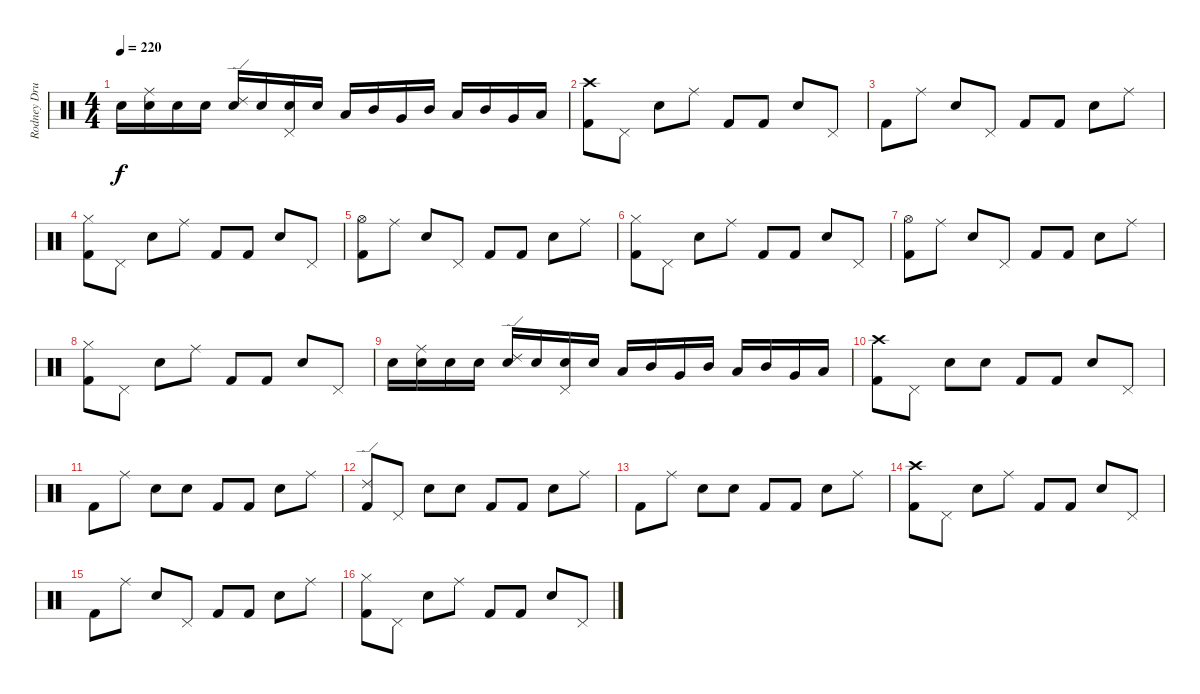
\track ("Rodney Drums" "Rodney Dru") {instrument percussion}
\staff {score}
\articulation defaults
\ts (4 4)
\tempo 220
\clef neutral
\ks c "Electric Snare (hit)".16{dy f}
("Ride (middle)" "Electric Snare (hit)").16 "Electric Snare (hit)".16 "Electric Snare (hit)".16 ("Ride (edge) 2" "Electric Snare (hit)").16 "Electric Snare (hit)".16 ("Pedal Hi-Hat (hit)" "Electric Snare (hit)").16 "Electric Snare (hit)".16 "Low Tom (hit)".16 "Mid Tom (hit)".16 "Very Low Tom (hit)".16 "Mid Tom (hit)".16 "Low Tom (hit)".16 "Mid Tom (hit)".16 "Very Low Tom (hit)".16 "Low Tom (hit)".16 |
("Crash high (hit)" "Kick (hit) 2").8 "Pedal Hi-Hat (hit)".8 "Electric Snare (hit)".8 "Ride (middle)".8 "Kick (hit) 2".8 "Kick (hit) 2".8 "Electric Snare (hit)".8 "Pedal Hi-Hat (hit)".8 |
"Kick (hit) 2".8 "Ride (middle)".8 "Electric Snare (hit)".8 "Pedal Hi-Hat (hit)".8 "Kick (hit) 2".8 "Kick (hit) 2".8 "Electric Snare (hit)".8 "Ride (middle)".8 |
("Hi-Hat (closed)" "Kick (hit) 2").8 "Pedal Hi-Hat (hit)".8 "Electric Snare (hit)".8 "Ride (middle)".8 "Kick (hit) 2".8 "Kick (hit) 2".8 "Electric Snare (hit)".8 "Pedal Hi-Hat (hit)".8 |
("Hi-Hat (open)" "Kick (hit) 2").8 "Ride (middle)".8 "Electric Snare (hit)".8 "Pedal Hi-Hat (hit)".8 "Kick (hit) 2".8 "Kick (hit) 2".8 "Electric Snare (hit)".8 "Ride (middle)".8 |
("Hi-Hat (closed)" "Kick (hit) 2").8 "Pedal Hi-Hat (hit)".8 "Electric Snare (hit)".8 "Ride (middle)".8 "Kick (hit) 2".8 "Kick (hit) 2".8 "Electric Snare (hit)".8 "Pedal Hi-Hat (hit)".8 |
("Hi-Hat (open)" "Kick (hit) 2").8 "Ride (middle)".8 "Electric Snare (hit)".8 "Pedal Hi-Hat (hit)".8 "Kick (hit) 2".8 "Kick (hit) 2".8 "Electric Snare (hit)".8 "Ride (middle)".8 |
("Hi-Hat (closed)" "Kick (hit) 2").8 "Pedal Hi-Hat (hit)".8 "Electric Snare (hit)".8 "Ride (middle)".8 "Kick (hit) 2".8 "Kick (hit) 2".8 "Electric Snare (hit)".8 "Pedal Hi-Hat (hit)".8 |
"Electric Snare (hit)".16 ("Ride (middle)" "Electric Snare (hit)").16 "Electric Snare (hit)".16 "Electric Snare (hit)".16 ("Ride (edge) 2" "Electric Snare (hit)").16 "Electric Snare (hit)".16 ("Pedal Hi-Hat (hit)" "Electric Snare (hit)").16 "Electric Snare (hit)".16 "Low Tom (hit)".16 "Mid Tom (hit)".16 "Very Low Tom (hit)".16 "Mid Tom (hit)".16 "Low Tom (hit)".16 "Mid Tom (hit)".16 "Very Low Tom (hit)".16 "Low Tom (hit)".16 |
("Crash high (hit)" "Kick (hit) 2").8 "Pedal Hi-Hat (hit)".8 "Electric Snare (hit)".8 "Electric Snare (hit)".8 "Kick (hit) 2".8 "Kick (hit) 2".8 "Electric Snare (hit)".8 "Pedal Hi-Hat (hit)".8 |
"Kick (hit) 2".8 "Ride (middle)".8 "Electric Snare (hit)".8 "Electric Snare (hit)".8 "Kick (hit) 2".8 "Kick (hit) 2".8 "Electric Snare (hit)".8 "Ride (middle)".8 |
("Ride (edge) 2" "Kick (hit) 2").8 "Pedal Hi-Hat (hit)".8 "Electric Snare (hit)".8 "Electric Snare (hit)".8 "Kick (hit) 2".8 "Kick (hit) 2".8 "Electric Snare (hit)".8 "Ride (middle)".8 |
"Kick (hit) 2".8 "Ride (middle)".8 "Electric Snare (hit)".8 "Electric Snare (hit)".8 "Kick (hit) 2".8 "Kick (hit) 2".8 "Electric Snare (hit)".8 "Ride (middle)".8 |
("Crash high (hit)" "Kick (hit) 2").8 "Pedal Hi-Hat (hit)".8 "Electric Snare (hit)".8 "Ride (middle)".8 "Kick (hit) 2".8 "Kick (hit) 2".8 "Electric Snare (hit)".8 "Pedal Hi-Hat (hit)".8 |
"Kick (hit) 2".8 "Ride (middle)".8 "Electric Snare (hit)".8 "Pedal Hi-Hat (hit)".8 "Kick (hit) 2".8 "Kick (hit) 2".8 "Electric Snare (hit)".8 "Ride (middle)".8 |
("Hi-Hat (closed)" "Kick (hit) 2").8 "Pedal Hi-Hat (hit)".8 "Electric Snare (hit)".8 "Ride (middle)".8 "Kick (hit) 2".8 "Kick (hit) 2".8 "Electric Snare (hit)".8 "Pedal Hi-Hat (hit)".8
